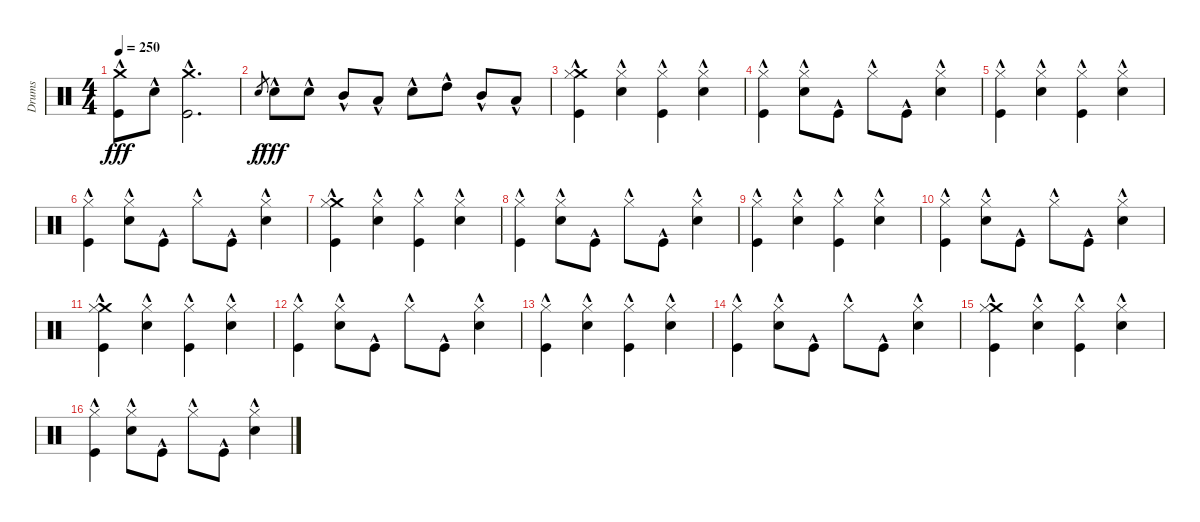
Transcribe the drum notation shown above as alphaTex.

\track ("Drums" "Drums") {instrument percussion}
\staff {score}
\articulation defaults
\ts (4 4)
\tempo 250
\clef neutral
\ks c
("Crash medium (hit)"{hac} "Kick (hit)"{hac}).8{dy fff} "Snare (hit) 2"{hac}.8 ("Crash medium (hit)"{hac} "Kick (hit)"{hac}).2{d} |
"Snare (hit) 2".8{gr dy f} "Snare (hit) 2"{hac}.8{dy fff} "Snare (hit) 2"{hac}.8 "Mid Tom (hit)"{hac}.8 "Low Tom (hit)"{hac}.8 "Snare (hit) 2"{hac}.8 "High Tom (hit)"{hac}.8 "Mid Tom (hit)"{hac}.8 "Low Tom (hit)"{hac}.8 |
("Crash medium (hit)"{hac} "Hi-Hat (closed)"{hac} "Kick (hit)"{hac}).4 ("Hi-Hat (closed)"{hac} "Snare (hit) 2"{hac}).4 ("Hi-Hat (closed)"{hac} "Kick (hit)"{hac}).4 ("Hi-Hat (closed)"{hac} "Snare (hit) 2"{hac}).4 |
("Hi-Hat (closed)"{hac} "Kick (hit)"{hac}).4 ("Hi-Hat (closed)"{hac} "Snare (hit) 2"{hac}).8 "Kick (hit)"{hac}.8 "Hi-Hat (closed)"{hac}.8 "Kick (hit)"{hac}.8 ("Hi-Hat (closed)"{hac} "Snare (hit) 2"{hac}).4 |
("Hi-Hat (closed)"{hac} "Kick (hit)"{hac}).4 ("Hi-Hat (closed)"{hac} "Snare (hit) 2"{hac}).4 ("Hi-Hat (closed)"{hac} "Kick (hit)"{hac}).4 ("Hi-Hat (closed)"{hac} "Snare (hit) 2"{hac}).4 |
("Hi-Hat (closed)"{hac} "Kick (hit)"{hac}).4 ("Hi-Hat (closed)"{hac} "Snare (hit) 2"{hac}).8 "Kick (hit)"{hac}.8 "Hi-Hat (closed)"{hac}.8 "Kick (hit)"{hac}.8 ("Hi-Hat (closed)"{hac} "Snare (hit) 2"{hac}).4 |
("Crash medium (hit)"{hac} "Hi-Hat (closed)"{hac} "Kick (hit)"{hac}).4 ("Hi-Hat (closed)"{hac} "Snare (hit) 2"{hac}).4 ("Hi-Hat (closed)"{hac} "Kick (hit)"{hac}).4 ("Hi-Hat (closed)"{hac} "Snare (hit) 2"{hac}).4 |
("Hi-Hat (closed)"{hac} "Kick (hit)"{hac}).4 ("Hi-Hat (closed)"{hac} "Snare (hit) 2"{hac}).8 "Kick (hit)"{hac}.8 "Hi-Hat (closed)"{hac}.8 "Kick (hit)"{hac}.8 ("Hi-Hat (closed)"{hac} "Snare (hit) 2"{hac}).4 |
("Hi-Hat (closed)"{hac} "Kick (hit)"{hac}).4 ("Hi-Hat (closed)"{hac} "Snare (hit) 2"{hac}).4 ("Hi-Hat (closed)"{hac} "Kick (hit)"{hac}).4 ("Hi-Hat (closed)"{hac} "Snare (hit) 2"{hac}).4 |
("Hi-Hat (closed)"{hac} "Kick (hit)"{hac}).4 ("Hi-Hat (closed)"{hac} "Snare (hit) 2"{hac}).8 "Kick (hit)"{hac}.8 "Hi-Hat (closed)"{hac}.8 "Kick (hit)"{hac}.8 ("Hi-Hat (closed)"{hac} "Snare (hit) 2"{hac}).4 |
("Crash medium (hit)"{hac} "Hi-Hat (closed)"{hac} "Kick (hit)"{hac}).4 ("Hi-Hat (closed)"{hac} "Snare (hit) 2"{hac}).4 ("Hi-Hat (closed)"{hac} "Kick (hit)"{hac}).4 ("Hi-Hat (closed)"{hac} "Snare (hit) 2"{hac}).4 |
("Hi-Hat (closed)"{hac} "Kick (hit)"{hac}).4 ("Hi-Hat (closed)"{hac} "Snare (hit) 2"{hac}).8 "Kick (hit)"{hac}.8 "Hi-Hat (closed)"{hac}.8 "Kick (hit)"{hac}.8 ("Hi-Hat (closed)"{hac} "Snare (hit) 2"{hac}).4 |
("Hi-Hat (closed)"{hac} "Kick (hit)"{hac}).4 ("Hi-Hat (closed)"{hac} "Snare (hit) 2"{hac}).4 ("Hi-Hat (closed)"{hac} "Kick (hit)"{hac}).4 ("Hi-Hat (closed)"{hac} "Snare (hit) 2"{hac}).4 |
("Hi-Hat (closed)"{hac} "Kick (hit)"{hac}).4 ("Hi-Hat (closed)"{hac} "Snare (hit) 2"{hac}).8 "Kick (hit)"{hac}.8 "Hi-Hat (closed)"{hac}.8 "Kick (hit)"{hac}.8 ("Hi-Hat (closed)"{hac} "Snare (hit) 2"{hac}).4 |
("Crash medium (hit)"{hac} "Hi-Hat (closed)"{hac} "Kick (hit)"{hac}).4 ("Hi-Hat (closed)"{hac} "Snare (hit) 2"{hac}).4 ("Hi-Hat (closed)"{hac} "Kick (hit)"{hac}).4 ("Hi-Hat (closed)"{hac} "Snare (hit) 2"{hac}).4 |
("Hi-Hat (closed)"{hac} "Kick (hit)"{hac}).4 ("Hi-Hat (closed)"{hac} "Snare (hit) 2"{hac}).8 "Kick (hit)"{hac}.8 "Hi-Hat (closed)"{hac}.8 "Kick (hit)"{hac}.8 ("Hi-Hat (closed)"{hac} "Snare (hit) 2"{hac}).4
